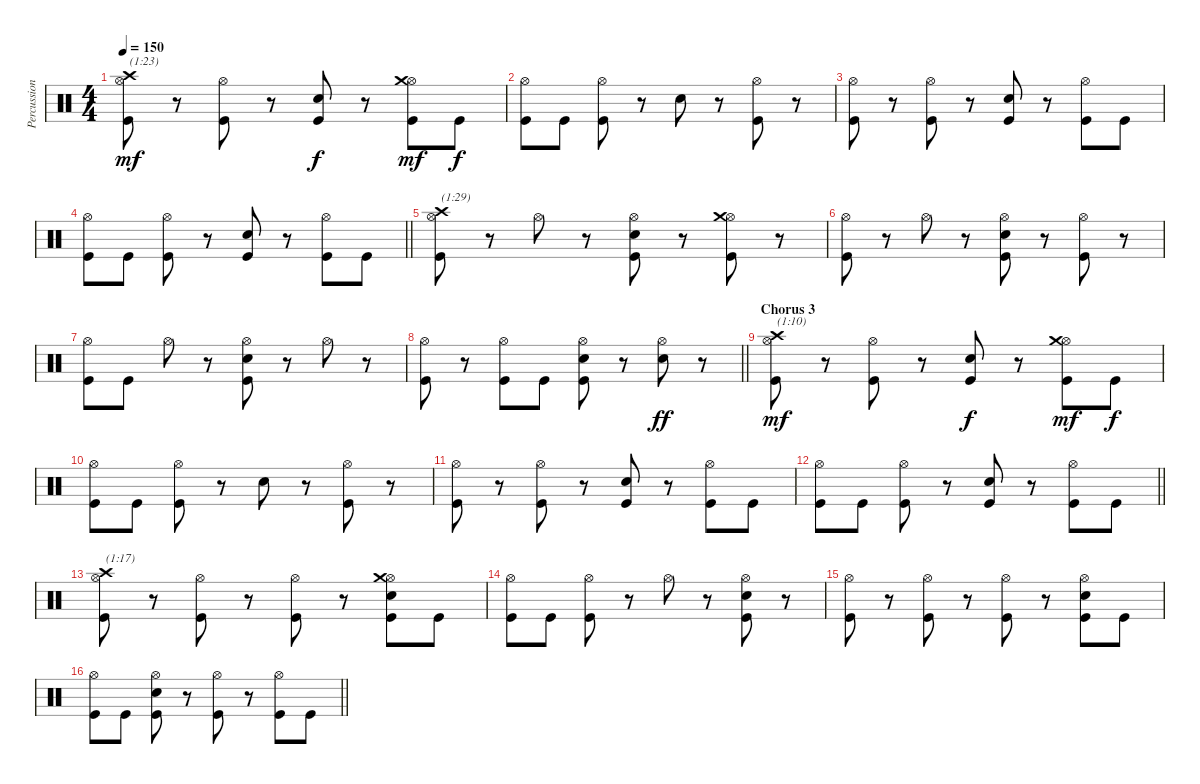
\track ("Percussion" "Percussion") {instrument percussion}
\staff {score}
\articulation defaults
\ts (4 4)
\tempo 150
\clef neutral
\ks c
("Hi-Hat (open)" "Crash high (hit)" "Kick (hit)").8{txt "(1:23)" dy mf} r.8 ("Hi-Hat (open)" "Kick (hit)").8 r.8 ("Snare (hit) 2" "Kick (hit)").8{dy f} r.8 ("Hi-Hat (open)" "Crash medium (hit)" "Kick (hit)").8{dy mf} "Kick (hit)".8{dy f} |
("Hi-Hat (open)" "Kick (hit)").8 "Kick (hit)".8 ("Hi-Hat (open)" "Kick (hit)").8 r.8 "Snare (hit) 2".8 r.8 ("Hi-Hat (open)" "Kick (hit)").8 r.8 |
("Hi-Hat (open)" "Kick (hit)").8 r.8 ("Hi-Hat (open)" "Kick (hit)").8 r.8 ("Snare (hit) 2" "Kick (hit)").8 r.8 ("Hi-Hat (open)" "Kick (hit)").8 "Kick (hit)".8 |
\barLineRight lightlight
("Hi-Hat (open)" "Kick (hit)").8 "Kick (hit)".8 ("Hi-Hat (open)" "Kick (hit)").8 r.8 ("Snare (hit) 2" "Kick (hit)").8 r.8 ("Hi-Hat (open)" "Kick (hit)").8 "Kick (hit)".8 |
("Hi-Hat (open)" "Crash high (hit)" "Kick (hit)").8{txt "(1:29)"} r.8 "Hi-Hat (open)".8 r.8 ("Hi-Hat (open)" "Snare (hit) 2" "Kick (hit)").8 r.8 ("Hi-Hat (open)" "Crash medium (hit)" "Kick (hit)").8 r.8 |
("Hi-Hat (open)" "Kick (hit)").8 r.8 "Hi-Hat (open)".8 r.8 ("Hi-Hat (open)" "Snare (hit) 2" "Kick (hit)").8 r.8 ("Hi-Hat (open)" "Kick (hit)").8 r.8 |
("Hi-Hat (open)" "Kick (hit)").8 "Kick (hit)".8 "Hi-Hat (open)".8 r.8 ("Hi-Hat (open)" "Snare (hit) 2" "Kick (hit)").8 r.8 "Hi-Hat (open)".8 r.8 |
\barLineRight lightlight
("Hi-Hat (open)" "Kick (hit)").8 r.8 ("Hi-Hat (open)" "Kick (hit)").8 "Kick (hit)".8 ("Hi-Hat (open)" "Snare (hit) 2" "Kick (hit)").8 r.8 ("Hi-Hat (open)" "Snare (hit) 2").8{dy ff} r.8 |
\section ("" "Chorus 3")
("Hi-Hat (open)" "Crash high (hit)" "Kick (hit)").8{txt "(1:10)" dy mf volume 16} r.8 ("Hi-Hat (open)" "Kick (hit)").8 r.8 ("Snare (hit) 2" "Kick (hit)").8{dy f} r.8 ("Hi-Hat (open)" "Crash medium (hit)" "Kick (hit)").8{dy mf} "Kick (hit)".8{dy f} |
("Hi-Hat (open)" "Kick (hit)").8 "Kick (hit)".8 ("Hi-Hat (open)" "Kick (hit)").8 r.8 "Snare (hit) 2".8 r.8 ("Hi-Hat (open)" "Kick (hit)").8 r.8 |
("Hi-Hat (open)" "Kick (hit)").8 r.8 ("Hi-Hat (open)" "Kick (hit)").8 r.8 ("Snare (hit) 2" "Kick (hit)").8 r.8 ("Hi-Hat (open)" "Kick (hit)").8 "Kick (hit)".8 |
\barLineRight lightlight
("Hi-Hat (open)" "Kick (hit)").8 "Kick (hit)".8 ("Hi-Hat (open)" "Kick (hit)").8 r.8 ("Snare (hit) 2" "Kick (hit)").8 r.8 ("Hi-Hat (open)" "Kick (hit)").8 "Kick (hit)".8 |
\section ("" "")
("Hi-Hat (open)" "Crash high (hit)" "Kick (hit)").8{txt "(1:17)"} r.8 ("Hi-Hat (open)" "Kick (hit)").8 r.8 ("Hi-Hat (open)" "Kick (hit)").8 r.8 ("Hi-Hat (open)" "Crash medium (hit)" "Snare (hit) 2" "Kick (hit)").8 "Kick (hit)".8 |
("Hi-Hat (open)" "Kick (hit)").8 "Kick (hit)".8 ("Hi-Hat (open)" "Kick (hit)").8 r.8 "Hi-Hat (open)".8 r.8 ("Hi-Hat (open)" "Snare (hit) 2" "Kick (hit)").8 r.8 |
("Hi-Hat (open)" "Kick (hit)").8 r.8 ("Hi-Hat (open)" "Kick (hit)").8 r.8 ("Hi-Hat (open)" "Kick (hit)").8 r.8 ("Hi-Hat (open)" "Snare (hit) 2" "Kick (hit)").8 "Kick (hit)".8 |
\barLineRight lightlight
("Hi-Hat (open)" "Kick (hit)").8 "Kick (hit)".8 ("Hi-Hat (open)" "Snare (hit) 2" "Kick (hit)").8 r.8 ("Hi-Hat (open)" "Kick (hit)").8 r.8 ("Hi-Hat (open)" "Kick (hit)").8 "Kick (hit)".8
